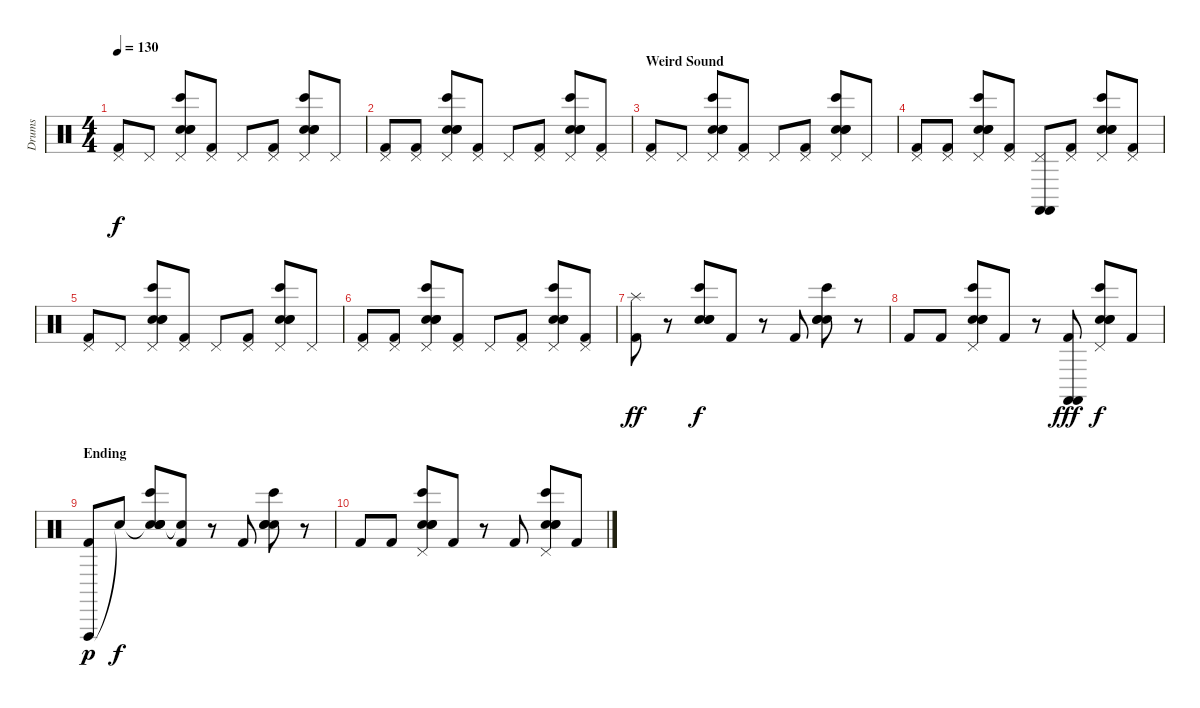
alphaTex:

\track ("Drums" "Drums") {instrument percussion}
\staff {score}
\articulation defaults
\ts (4 4)
\tempo 130
\clef neutral
\ks c
("Pedal Hi-Hat (hit)" "Kick (hit) 2").8{dy f} "Pedal Hi-Hat (hit)".8 ("Pedal Hi-Hat (hit)" "Snare (hit) 2" "Electric Snare (hit)" "Bongo High (hit)" "Hand Clap (hit)").8 ("Pedal Hi-Hat (hit)" "Kick (hit) 2").8 "Pedal Hi-Hat (hit)".8 ("Pedal Hi-Hat (hit)" "Kick (hit) 2").8 ("Pedal Hi-Hat (hit)" "Snare (hit) 2" "Electric Snare (hit)" "Bongo High (hit)" "Hand Clap (hit)").8 "Pedal Hi-Hat (hit)".8 |
("Pedal Hi-Hat (hit)" "Kick (hit) 2").8 ("Pedal Hi-Hat (hit)" "Kick (hit) 2").8 ("Pedal Hi-Hat (hit)" "Snare (hit) 2" "Electric Snare (hit)" "Bongo High (hit)" "Hand Clap (hit)").8 ("Pedal Hi-Hat (hit)" "Kick (hit) 2").8 "Pedal Hi-Hat (hit)".8 ("Pedal Hi-Hat (hit)" "Kick (hit) 2").8 ("Pedal Hi-Hat (hit)" "Snare (hit) 2" "Electric Snare (hit)" "Bongo High (hit)" "Hand Clap (hit)").8 ("Pedal Hi-Hat (hit)" "Kick (hit) 2").8 |
\section ("" "Weird Sound")
("Pedal Hi-Hat (hit)" "Kick (hit) 2").8 "Pedal Hi-Hat (hit)".8 ("Pedal Hi-Hat (hit)" "Snare (hit) 2" "Electric Snare (hit)" "Bongo High (hit)" "Hand Clap (hit)").8 ("Pedal Hi-Hat (hit)" "Kick (hit) 2").8 "Pedal Hi-Hat (hit)".8 ("Pedal Hi-Hat (hit)" "Kick (hit) 2").8 ("Pedal Hi-Hat (hit)" "Snare (hit) 2" "Electric Snare (hit)" "Bongo High (hit)" "Hand Clap (hit)").8 "Pedal Hi-Hat (hit)".8 |
("Pedal Hi-Hat (hit)" "Kick (hit) 2").8 ("Pedal Hi-Hat (hit)" "Kick (hit) 2").8 ("Pedal Hi-Hat (hit)" "Snare (hit) 2" "Electric Snare (hit)" "Bongo High (hit)" "Hand Clap (hit)").8 ("Pedal Hi-Hat (hit)" "Kick (hit) 2").8 ("Pedal Hi-Hat (hit)" "Castanets (hit)" "Castanets (hit)").8 ("Pedal Hi-Hat (hit)" "Kick (hit) 2").8 ("Pedal Hi-Hat (hit)" "Snare (hit) 2" "Electric Snare (hit)" "Bongo High (hit)" "Hand Clap (hit)").8 ("Pedal Hi-Hat (hit)" "Kick (hit) 2").8 |
("Pedal Hi-Hat (hit)" "Kick (hit) 2").8 "Pedal Hi-Hat (hit)".8 ("Pedal Hi-Hat (hit)" "Snare (hit) 2" "Electric Snare (hit)" "Bongo High (hit)" "Hand Clap (hit)").8 ("Pedal Hi-Hat (hit)" "Kick (hit) 2").8 "Pedal Hi-Hat (hit)".8 ("Pedal Hi-Hat (hit)" "Kick (hit) 2").8 ("Pedal Hi-Hat (hit)" "Snare (hit) 2" "Electric Snare (hit)" "Bongo High (hit)" "Hand Clap (hit)").8 "Pedal Hi-Hat (hit)".8 |
("Pedal Hi-Hat (hit)" "Kick (hit) 2").8 ("Pedal Hi-Hat (hit)" "Kick (hit) 2").8 ("Pedal Hi-Hat (hit)" "Snare (hit) 2" "Electric Snare (hit)" "Bongo High (hit)" "Hand Clap (hit)").8 ("Pedal Hi-Hat (hit)" "Kick (hit) 2").8 "Pedal Hi-Hat (hit)".8 ("Pedal Hi-Hat (hit)" "Kick (hit) 2").8 ("Pedal Hi-Hat (hit)" "Snare (hit) 2" "Electric Snare (hit)" "Bongo High (hit)" "Hand Clap (hit)").8 ("Pedal Hi-Hat (hit)" "Kick (hit) 2").8 |
("Splash (hit)" "Kick (hit) 2").8{dy ff} r.8 ("Snare (hit) 2" "Electric Snare (hit)" "Bongo High (hit)" "Hand Clap (hit)").8{dy f} "Kick (hit) 2".8 r.8 "Kick (hit) 2".8 ("Snare (hit) 2" "Electric Snare (hit)" "Bongo High (hit)" "Hand Clap (hit)").8 r.8 |
"Kick (hit) 2".8 "Kick (hit) 2".8 ("Pedal Hi-Hat (hit)" "Snare (hit) 2" "Electric Snare (hit)" "Bongo High (hit)" "Hand Clap (hit)").8 "Kick (hit) 2".8 r.8 ("Castanets (hit)" "Castanets (hit)" "Kick (hit) 2").8{dy fff} ("Pedal Hi-Hat (hit)" "Snare (hit) 2" "Electric Snare (hit)" "Bongo High (hit)" "Hand Clap (hit)").8{dy f} "Kick (hit) 2".8 |
\section ("" "Ending")
("Vibraslap (hit)" "Kick (hit) 2").8{dy p} "Snare (hit)"{t}.8{dy f} ("Snare (hit)"{t} "Snare (hit) 2" "Electric Snare (hit)" "Bongo High (hit)" "Hand Clap (hit)").8 ("Snare (hit)"{t} "Kick (hit) 2").8 r.8 "Kick (hit) 2".8 ("Snare (hit) 2" "Electric Snare (hit)" "Bongo High (hit)" "Hand Clap (hit)").8 r.8 |
"Kick (hit) 2".8 "Kick (hit) 2".8 ("Pedal Hi-Hat (hit)" "Snare (hit) 2" "Electric Snare (hit)" "Bongo High (hit)" "Hand Clap (hit)").8 "Kick (hit) 2".8 r.8 "Kick (hit) 2".8 ("Pedal Hi-Hat (hit)" "Snare (hit) 2" "Electric Snare (hit)" "Bongo High (hit)" "Hand Clap (hit)").8 "Kick (hit) 2".8
